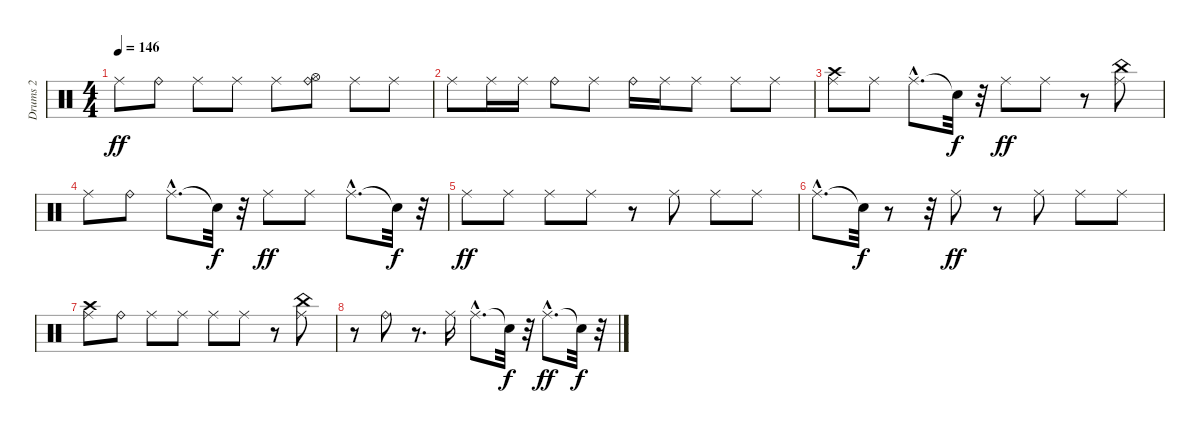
\track ("Drums 2" "Drums 2") {instrument percussion}
\staff {score}
\articulation defaults
\ts (4 4)
\tempo 146
\clef neutral
\ks c "Ride (middle)".8{dy ff volume 15} "Ride (bell)".8 "Ride (middle)".8 "Ride (middle)".8 "Ride (middle)".8
("Hi-Hat (open)" "Ride (bell)").8 "Ride (middle)".8 "Ride (middle)".8 |
"Ride (middle)".8{volume 13} "Ride (middle)".16 "Ride (middle)".16 "Ride (bell)".8 "Ride (middle)".8 "Ride (bell)".16 "Ride (middle)".16 "Ride (middle)".8 "Ride (middle)".8 "Ride (middle)".8 |
("Crash high (hit)" "Ride (middle)").8{volume 11} "Ride (middle)".8 "Ride (middle)"{hac}.8{d} "Snare (hit)"{t}.32{dy f} r.32 "Ride (middle)".8{dy ff} "Ride (middle)".8 r.8 ("Ride (middle)" "China (hit)").8 |
"Ride (middle)".8{volume 10} "Ride (bell)".8 "Ride (middle)"{hac}.8{d} "Snare (hit)"{t}.32{dy f} r.32 "Ride (middle)".8{dy ff} "Ride (middle)".8 "Ride (middle)"{hac}.8{d} "Snare (hit)"{t}.32{dy f} r.32 |
"Ride (middle)".8{dy ff volume 7} "Ride (middle)".8 "Ride (middle)".8 "Ride (middle)".8 r.8 "Ride (middle)".8 "Ride (middle)".8 "Ride (middle)".8 |
"Ride (middle)"{hac}.8{d volume 6} "Snare (hit)"{t}.32{dy f} r.8 r.32 "Ride (middle)".8{dy ff} r.8 "Ride (middle)".8 "Ride (middle)".8 "Ride (middle)".8 |
("Crash high (hit)" "Ride (middle)").8{volume 4} "Ride (bell)".8 "Ride (middle)".8 "Ride (middle)".8 "Ride (middle)".8 "Ride (middle)".8 r.8 ("Ride (middle)" "China (hit)").8 |
r.8{volume 1} "Ride (bell)".8 r.8{d} "Ride (middle)".16 "Ride (middle)"{hac}.8{d} "Snare (hit)"{t}.32{dy f} r.32 "Ride (middle)"{hac}.8{d dy ff} "Snare (hit)"{t}.32{dy f} r.32
